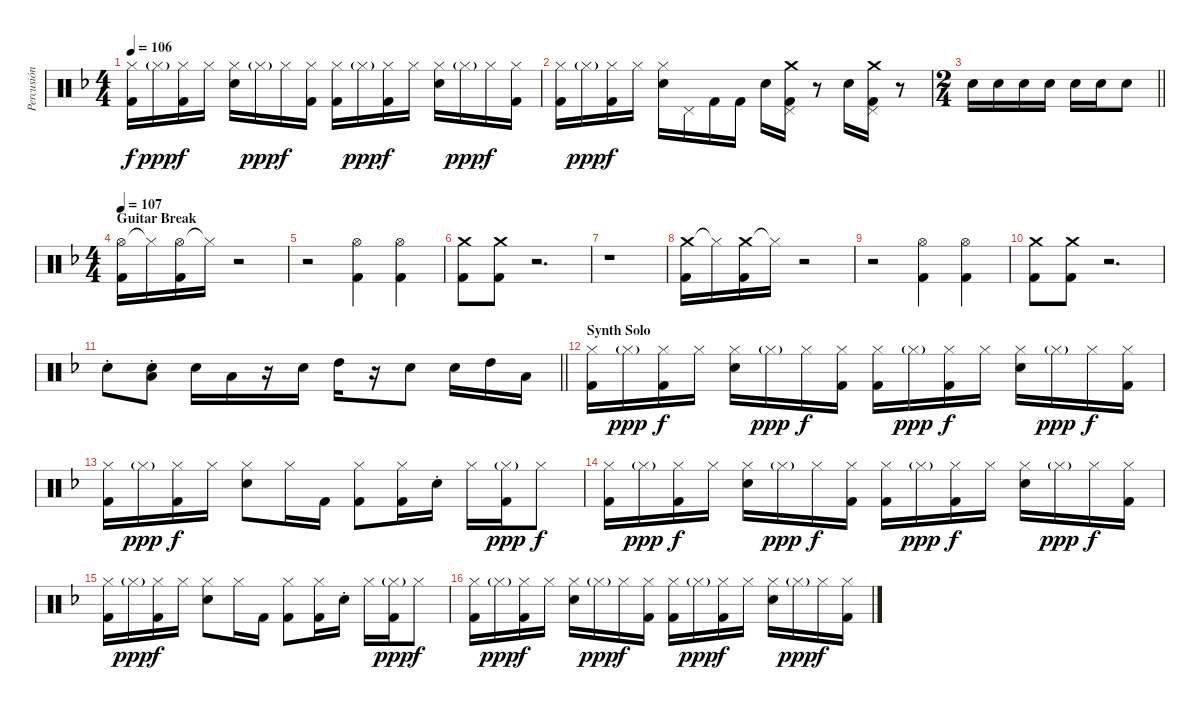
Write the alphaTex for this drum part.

\track ("Percusión" "Percusión") {instrument percussion}
\staff {score}
\articulation defaults
\ts (4 4)
\tempo 106
\clef neutral
\ks f
("Hi-Hat (closed)" "Kick (hit) 2").16{dy f} "Hi-Hat (closed)"{g}.16{dy ppp} ("Hi-Hat (closed)" "Kick (hit) 2").16{dy f} "Hi-Hat (closed)".16 ("Hi-Hat (closed)" "Snare (hit) 2").16 "Hi-Hat (closed)"{g}.16{dy ppp} "Hi-Hat (closed)".16{dy f} ("Hi-Hat (closed)" "Kick (hit) 2").16 ("Hi-Hat (closed)" "Kick (hit) 2").16 "Hi-Hat (closed)"{g}.16{dy ppp} ("Hi-Hat (closed)" "Kick (hit) 2").16{dy f} "Hi-Hat (closed)".16 ("Hi-Hat (closed)" "Snare (hit) 2").16 "Hi-Hat (closed)"{g}.16{dy ppp} "Hi-Hat (closed)".16{dy f} ("Hi-Hat (closed)" "Kick (hit) 2").16 |
("Hi-Hat (closed)" "Kick (hit) 2").16 "Hi-Hat (closed)"{g}.16{dy ppp} ("Hi-Hat (closed)" "Kick (hit) 2").16{dy f} "Hi-Hat (closed)".16 ("Hi-Hat (closed)" "Snare (hit) 2").16 "Pedal Hi-Hat (hit)".16 "Kick (hit) 2".16 "Kick (hit) 2".16 "Snare (hit) 2".16 ("Crash medium (hit)" "Pedal Hi-Hat (hit)" "Kick (hit) 2").16 r.8 "Snare (hit) 2".16 ("Crash medium (hit)" "Pedal Hi-Hat (hit)" "Kick (hit) 2").16 r.8 |
\ts (2 4)
\barLineRight lightlight "Snare (hit) 2".16 "Snare (hit) 2".16 "Snare (hit) 2".16 "Snare (hit) 2".16 "Snare (hit) 2".16 "Snare (hit) 2".16 "Snare (hit) 2".8
|
\ts (4 4)
\section ("" "Guitar Break")
\tempo 107
("Hi-Hat (open)" "Kick (hit) 2").16 "Hi-Hat (closed)"{t}.16 ("Hi-Hat (open)" "Kick (hit) 2").16 "Hi-Hat (closed)"{t}.16 r.2 |
r.2 ("Hi-Hat (open)" "Kick (hit) 2").4 ("Hi-Hat (open)" "Kick (hit) 2").4 |
("Kick (hit) 2" "Crash medium (hit)").8 ("Kick (hit) 2" "Crash medium (hit)").8 r.2{d} |
r.1 |
("Crash medium (hit)" "Kick (hit) 2").16 "Hi-Hat (closed)"{t}.16 ("Crash medium (hit)" "Kick (hit) 2").16 "Hi-Hat (closed)"{t}.16 r.2 |
r.2 ("Hi-Hat (open)" "Kick (hit) 2").4 ("Hi-Hat (open)" "Kick (hit) 2").4 |
("Kick (hit) 2" "Crash medium (hit)").8 ("Kick (hit) 2" "Crash medium (hit)").8 r.2{d} |
\barLineRight lightlight "Snare (hit) 2"{st}.8
("Low Tom (hit)" "Snare (hit) 2"{st}).8 "Snare (hit) 2".16 "Low Tom (hit)".16 r.16 "Snare (hit) 2".16 "High Tom (hit)".16 r.16 "Snare (hit) 2".8 "Snare (hit) 2".16 "High Tom (hit)".16 "Low Tom (hit)".16 |
\section ("" "Synth Solo")
("Hi-Hat (closed)" "Kick (hit) 2").16 "Hi-Hat (closed)"{g}.16{dy ppp} ("Hi-Hat (closed)" "Kick (hit) 2").16{dy f} "Hi-Hat (closed)".16 ("Hi-Hat (closed)" "Snare (hit) 2").16 "Hi-Hat (closed)"{g}.16{dy ppp} "Hi-Hat (closed)".16{dy f} ("Hi-Hat (closed)" "Kick (hit) 2").16 ("Hi-Hat (closed)" "Kick (hit) 2").16 "Hi-Hat (closed)"{g}.16{dy ppp} ("Hi-Hat (closed)" "Kick (hit) 2").16{dy f} "Hi-Hat (closed)".16 ("Hi-Hat (closed)" "Snare (hit) 2").16 "Hi-Hat (closed)"{g}.16{dy ppp} "Hi-Hat (closed)".16{dy f} ("Hi-Hat (closed)" "Kick (hit) 2").16 |
("Hi-Hat (closed)" "Kick (hit) 2").16 "Hi-Hat (closed)"{g}.16{dy ppp} ("Hi-Hat (closed)" "Kick (hit) 2").16{dy f} "Hi-Hat (closed)".16 ("Hi-Hat (closed)" "Snare (hit) 2").8 "Hi-Hat (closed)".16 "Kick (hit) 2".16 ("Hi-Hat (closed)" "Kick (hit) 2").8 ("Hi-Hat (closed)" "Kick (hit) 2").16 "Snare (hit) 2"{st}.16 "Hi-Hat (closed)".16 ("Hi-Hat (closed)"{g} "Kick (hit) 2").16{dy ppp} "Hi-Hat (closed)".8{dy f} |
("Hi-Hat (closed)" "Kick (hit) 2").16 "Hi-Hat (closed)"{g}.16{dy ppp} ("Hi-Hat (closed)" "Kick (hit) 2").16{dy f} "Hi-Hat (closed)".16 ("Hi-Hat (closed)" "Snare (hit) 2").16 "Hi-Hat (closed)"{g}.16{dy ppp} "Hi-Hat (closed)".16{dy f} ("Hi-Hat (closed)" "Kick (hit) 2").16 ("Hi-Hat (closed)" "Kick (hit) 2").16 "Hi-Hat (closed)"{g}.16{dy ppp} ("Hi-Hat (closed)" "Kick (hit) 2").16{dy f} "Hi-Hat (closed)".16 ("Hi-Hat (closed)" "Snare (hit) 2").16 "Hi-Hat (closed)"{g}.16{dy ppp} "Hi-Hat (closed)".16{dy f} ("Hi-Hat (closed)" "Kick (hit) 2").16 |
("Hi-Hat (closed)" "Kick (hit) 2").16 "Hi-Hat (closed)"{g}.16{dy ppp} ("Hi-Hat (closed)" "Kick (hit) 2").16{dy f} "Hi-Hat (closed)".16 ("Hi-Hat (closed)" "Snare (hit) 2").8 "Hi-Hat (closed)".16 "Kick (hit) 2".16 ("Hi-Hat (closed)" "Kick (hit) 2").8 ("Hi-Hat (closed)" "Kick (hit) 2").16 "Snare (hit) 2"{st}.16 "Hi-Hat (closed)".16 ("Hi-Hat (closed)"{g} "Kick (hit) 2").16{dy ppp} "Hi-Hat (closed)".8{dy f} |
("Hi-Hat (closed)" "Kick (hit) 2").16 "Hi-Hat (closed)"{g}.16{dy ppp} ("Hi-Hat (closed)" "Kick (hit) 2").16{dy f} "Hi-Hat (closed)".16 ("Hi-Hat (closed)" "Snare (hit) 2").16 "Hi-Hat (closed)"{g}.16{dy ppp} "Hi-Hat (closed)".16{dy f} ("Hi-Hat (closed)" "Kick (hit) 2").16 ("Hi-Hat (closed)" "Kick (hit) 2").16 "Hi-Hat (closed)"{g}.16{dy ppp} ("Hi-Hat (closed)" "Kick (hit) 2").16{dy f} "Hi-Hat (closed)".16 ("Hi-Hat (closed)" "Snare (hit) 2").16 "Hi-Hat (closed)"{g}.16{dy ppp} "Hi-Hat (closed)".16{dy f} ("Hi-Hat (closed)" "Kick (hit) 2").16
